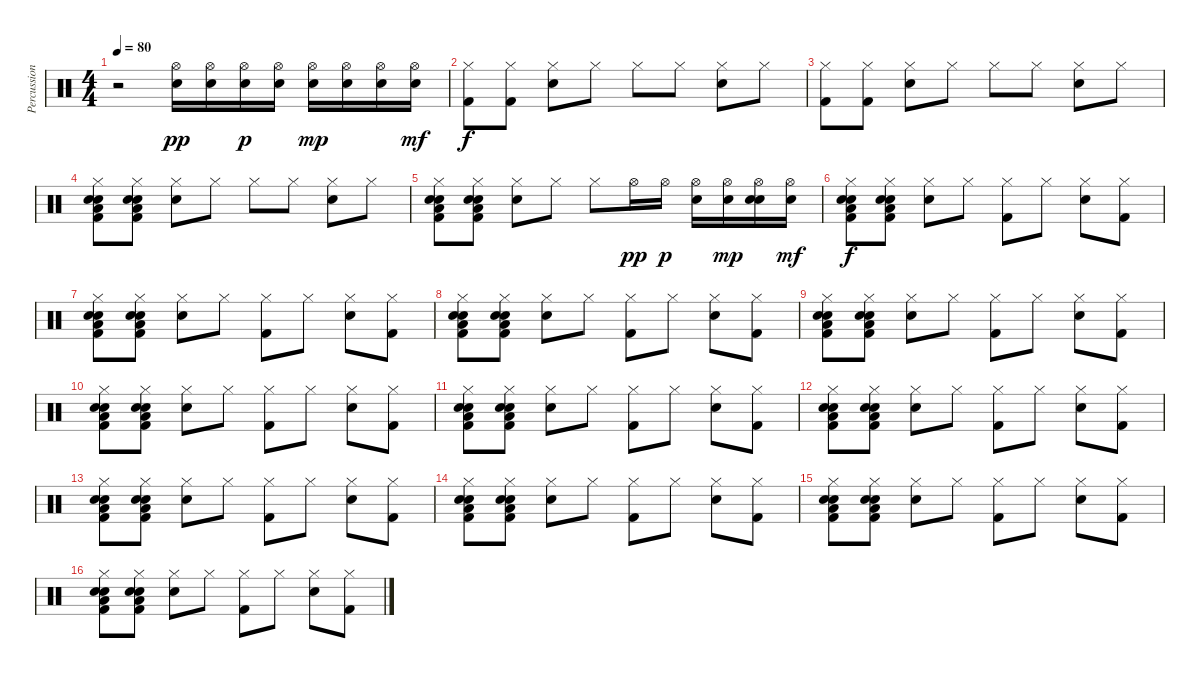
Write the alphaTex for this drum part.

\track ("Percussion" "Percussion") {instrument percussion}
\staff {score}
\articulation defaults
\ts (4 4)
\tempo 80
\clef neutral
\ks c
r.2{dy pp} ("Electric Snare (hit)" "Hi-Hat (open)").16 ("Electric Snare (hit)" "Hi-Hat (open)").16 ("Electric Snare (hit)" "Hi-Hat (open)").16{dy p} ("Electric Snare (hit)" "Hi-Hat (open)").16 ("Electric Snare (hit)" "Hi-Hat (open)").16{dy mp} ("Electric Snare (hit)" "Hi-Hat (open)").16 ("Electric Snare (hit)" "Hi-Hat (open)").16 ("Electric Snare (hit)" "Hi-Hat (open)").16{dy mf} |
("Kick (hit) 2" "Hi-Hat (closed)").8{dy f} ("Kick (hit) 2" "Hi-Hat (closed)").8 ("Hand Clap (hit)" "Hi-Hat (closed)").8 "Hi-Hat (closed)".8 "Hi-Hat (closed)".8 "Hi-Hat (closed)".8 ("Hand Clap (hit)" "Hi-Hat (closed)").8 "Hi-Hat (closed)".8 |
("Kick (hit) 2" "Hi-Hat (closed)").8 ("Kick (hit) 2" "Hi-Hat (closed)").8 ("Hand Clap (hit)" "Hi-Hat (closed)").8 "Hi-Hat (closed)".8 "Hi-Hat (closed)".8 "Hi-Hat (closed)".8 ("Hand Clap (hit)" "Hi-Hat (closed)").8 "Hi-Hat (closed)".8 |
("Kick (hit) 2" "Low Floor Tom (hit)" "Electric Snare (hit)" "Hand Clap (hit)" "Hi-Hat (closed)").8 ("Kick (hit) 2" "Low Floor Tom (hit)" "Electric Snare (hit)" "Hand Clap (hit)" "Hi-Hat (closed)").8 ("Hand Clap (hit)" "Hi-Hat (closed)").8 "Hi-Hat (closed)".8 "Hi-Hat (closed)".8 "Hi-Hat (closed)".8 ("Hand Clap (hit)" "Hi-Hat (closed)").8 "Hi-Hat (closed)".8 |
("Kick (hit) 2" "Low Floor Tom (hit)" "Electric Snare (hit)" "Hand Clap (hit)" "Hi-Hat (closed)").8 ("Kick (hit) 2" "Low Floor Tom (hit)" "Electric Snare (hit)" "Hand Clap (hit)" "Hi-Hat (closed)").8 ("Hand Clap (hit)" "Hi-Hat (closed)").8 "Hi-Hat (closed)".8 "Hi-Hat (closed)".8 "Hi-Hat (open)".16{dy pp} "Hi-Hat (open)".16{dy p} ("Electric Snare (hit)" "Hi-Hat (open)").16 ("Electric Snare (hit)" "Hi-Hat (open)").16{dy mp} ("Hand Clap (hit)" "Electric Snare (hit)" "Hi-Hat (open)").16 ("Electric Snare (hit)" "Hi-Hat (open)").16{dy mf} |
("Kick (hit) 2" "Low Floor Tom (hit)" "Electric Snare (hit)" "Hand Clap (hit)" "Hi-Hat (closed)").8{dy f} ("Kick (hit) 2" "Low Floor Tom (hit)" "Electric Snare (hit)" "Hand Clap (hit)" "Hi-Hat (closed)").8 ("Hand Clap (hit)" "Hi-Hat (closed)").8 "Hi-Hat (closed)".8 ("Kick (hit) 2" "Hi-Hat (closed)").8 "Hi-Hat (closed)".8 ("Hand Clap (hit)" "Hi-Hat (closed)").8 ("Kick (hit) 2" "Hi-Hat (closed)").8 |
("Kick (hit) 2" "Low Floor Tom (hit)" "Electric Snare (hit)" "Hand Clap (hit)" "Hi-Hat (closed)").8 ("Kick (hit) 2" "Low Floor Tom (hit)" "Electric Snare (hit)" "Hand Clap (hit)" "Hi-Hat (closed)").8 ("Hand Clap (hit)" "Hi-Hat (closed)").8 "Hi-Hat (closed)".8 ("Kick (hit) 2" "Hi-Hat (closed)").8 "Hi-Hat (closed)".8 ("Hand Clap (hit)" "Hi-Hat (closed)").8 ("Kick (hit) 2" "Hi-Hat (closed)").8 |
("Kick (hit) 2" "Low Floor Tom (hit)" "Electric Snare (hit)" "Hand Clap (hit)" "Hi-Hat (closed)").8 ("Kick (hit) 2" "Low Floor Tom (hit)" "Electric Snare (hit)" "Hand Clap (hit)" "Hi-Hat (closed)").8 ("Hand Clap (hit)" "Hi-Hat (closed)").8 "Hi-Hat (closed)".8 ("Kick (hit) 2" "Hi-Hat (closed)").8 "Hi-Hat (closed)".8 ("Hand Clap (hit)" "Hi-Hat (closed)").8 ("Kick (hit) 2" "Hi-Hat (closed)").8 |
("Kick (hit) 2" "Low Floor Tom (hit)" "Electric Snare (hit)" "Hand Clap (hit)" "Hi-Hat (closed)").8 ("Kick (hit) 2" "Low Floor Tom (hit)" "Electric Snare (hit)" "Hand Clap (hit)" "Hi-Hat (closed)").8 ("Hand Clap (hit)" "Hi-Hat (closed)").8 "Hi-Hat (closed)".8 ("Kick (hit) 2" "Hi-Hat (closed)").8 "Hi-Hat (closed)".8 ("Hand Clap (hit)" "Hi-Hat (closed)").8 ("Kick (hit) 2" "Hi-Hat (closed)").8 |
("Kick (hit) 2" "Low Floor Tom (hit)" "Electric Snare (hit)" "Hand Clap (hit)" "Hi-Hat (closed)").8 ("Kick (hit) 2" "Low Floor Tom (hit)" "Electric Snare (hit)" "Hand Clap (hit)" "Hi-Hat (closed)").8 ("Hand Clap (hit)" "Hi-Hat (closed)").8 "Hi-Hat (closed)".8 ("Kick (hit) 2" "Hi-Hat (closed)").8 "Hi-Hat (closed)".8 ("Hand Clap (hit)" "Hi-Hat (closed)").8 ("Kick (hit) 2" "Hi-Hat (closed)").8 |
("Kick (hit) 2" "Low Floor Tom (hit)" "Electric Snare (hit)" "Hand Clap (hit)" "Hi-Hat (closed)").8 ("Kick (hit) 2" "Low Floor Tom (hit)" "Electric Snare (hit)" "Hand Clap (hit)" "Hi-Hat (closed)").8 ("Hand Clap (hit)" "Hi-Hat (closed)").8 "Hi-Hat (closed)".8 ("Kick (hit) 2" "Hi-Hat (closed)").8 "Hi-Hat (closed)".8 ("Hand Clap (hit)" "Hi-Hat (closed)").8 ("Kick (hit) 2" "Hi-Hat (closed)").8 |
("Kick (hit) 2" "Low Floor Tom (hit)" "Electric Snare (hit)" "Hand Clap (hit)" "Hi-Hat (closed)").8 ("Kick (hit) 2" "Low Floor Tom (hit)" "Electric Snare (hit)" "Hand Clap (hit)" "Hi-Hat (closed)").8 ("Hand Clap (hit)" "Hi-Hat (closed)").8 "Hi-Hat (closed)".8 ("Kick (hit) 2" "Hi-Hat (closed)").8 "Hi-Hat (closed)".8 ("Hand Clap (hit)" "Hi-Hat (closed)").8 ("Kick (hit) 2" "Hi-Hat (closed)").8 |
("Kick (hit) 2" "Low Floor Tom (hit)" "Electric Snare (hit)" "Hand Clap (hit)" "Hi-Hat (closed)").8 ("Kick (hit) 2" "Low Floor Tom (hit)" "Electric Snare (hit)" "Hand Clap (hit)" "Hi-Hat (closed)").8 ("Hand Clap (hit)" "Hi-Hat (closed)").8 "Hi-Hat (closed)".8 ("Kick (hit) 2" "Hi-Hat (closed)").8 "Hi-Hat (closed)".8 ("Hand Clap (hit)" "Hi-Hat (closed)").8 ("Kick (hit) 2" "Hi-Hat (closed)").8 |
("Kick (hit) 2" "Low Floor Tom (hit)" "Electric Snare (hit)" "Hand Clap (hit)" "Hi-Hat (closed)").8 ("Kick (hit) 2" "Low Floor Tom (hit)" "Electric Snare (hit)" "Hand Clap (hit)" "Hi-Hat (closed)").8 ("Hand Clap (hit)" "Hi-Hat (closed)").8 "Hi-Hat (closed)".8 ("Kick (hit) 2" "Hi-Hat (closed)").8 "Hi-Hat (closed)".8 ("Hand Clap (hit)" "Hi-Hat (closed)").8 ("Kick (hit) 2" "Hi-Hat (closed)").8 |
("Kick (hit) 2" "Low Floor Tom (hit)" "Electric Snare (hit)" "Hand Clap (hit)" "Hi-Hat (closed)").8 ("Kick (hit) 2" "Low Floor Tom (hit)" "Electric Snare (hit)" "Hand Clap (hit)" "Hi-Hat (closed)").8 ("Hand Clap (hit)" "Hi-Hat (closed)").8 "Hi-Hat (closed)".8 ("Kick (hit) 2" "Hi-Hat (closed)").8 "Hi-Hat (closed)".8 ("Hand Clap (hit)" "Hi-Hat (closed)").8 ("Kick (hit) 2" "Hi-Hat (closed)").8 |
("Kick (hit) 2" "Low Floor Tom (hit)" "Electric Snare (hit)" "Hand Clap (hit)" "Hi-Hat (closed)").8 ("Kick (hit) 2" "Low Floor Tom (hit)" "Electric Snare (hit)" "Hand Clap (hit)" "Hi-Hat (closed)").8 ("Hand Clap (hit)" "Hi-Hat (closed)").8 "Hi-Hat (closed)".8 ("Kick (hit) 2" "Hi-Hat (closed)").8 "Hi-Hat (closed)".8 ("Hand Clap (hit)" "Hi-Hat (closed)").8 ("Kick (hit) 2" "Hi-Hat (closed)").8
